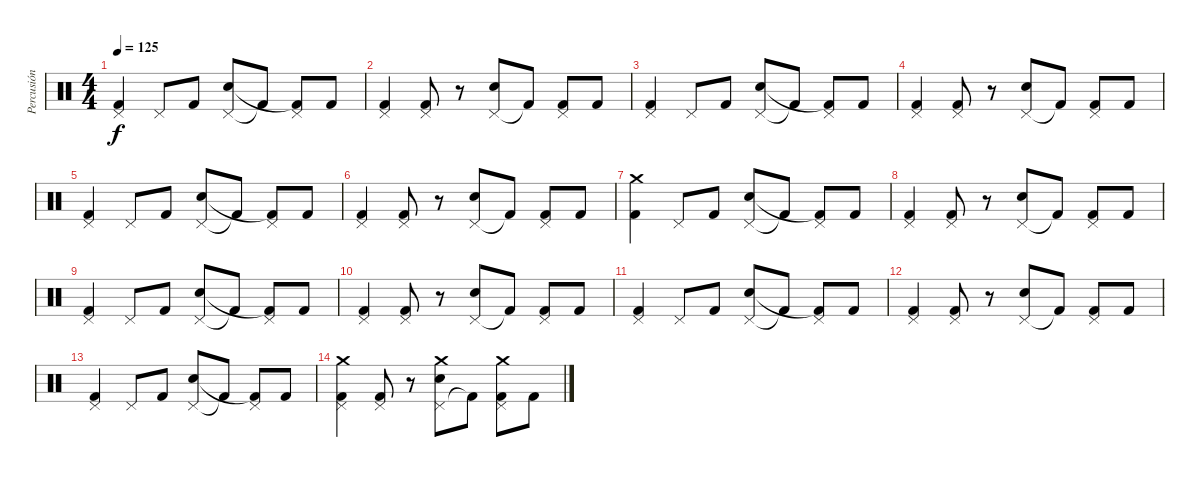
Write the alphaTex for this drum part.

\track ("Percusión" "Percusión") {instrument percussion}
\staff {score}
\articulation defaults
\ts (4 4)
\tempo 125
\clef neutral
\ks c
("Kick (hit) 2" "Pedal Hi-Hat (hit)").4{dy f} "Pedal Hi-Hat (hit)".8 "Kick (hit) 2".8 ("Pedal Hi-Hat (hit)" "Snare (hit) 2").8 "Kick (hit) 2"{t}.8 ("Pedal Hi-Hat (hit)" "Kick (hit) 2"{t}).8 "Kick (hit) 2".8 |
("Kick (hit) 2" "Pedal Hi-Hat (hit)").4 ("Pedal Hi-Hat (hit)" "Kick (hit) 2").8 r.8 ("Pedal Hi-Hat (hit)" "Snare (hit) 2").8 "Kick (hit) 2"{t}.8 ("Pedal Hi-Hat (hit)" "Kick (hit) 2").8 "Kick (hit) 2".8 |
("Kick (hit) 2" "Pedal Hi-Hat (hit)").4 "Pedal Hi-Hat (hit)".8 "Kick (hit) 2".8 ("Pedal Hi-Hat (hit)" "Snare (hit) 2").8 "Kick (hit) 2"{t}.8 ("Pedal Hi-Hat (hit)" "Kick (hit) 2"{t}).8 "Kick (hit) 2".8 |
("Kick (hit) 2" "Pedal Hi-Hat (hit)").4 ("Pedal Hi-Hat (hit)" "Kick (hit) 2").8 r.8 ("Pedal Hi-Hat (hit)" "Snare (hit) 2").8 "Kick (hit) 2"{t}.8 ("Pedal Hi-Hat (hit)" "Kick (hit) 2").8 "Kick (hit) 2".8 |
("Kick (hit) 2" "Pedal Hi-Hat (hit)").4 "Pedal Hi-Hat (hit)".8 "Kick (hit) 2".8 ("Pedal Hi-Hat (hit)" "Snare (hit) 2").8 "Kick (hit) 2"{t}.8 ("Pedal Hi-Hat (hit)" "Kick (hit) 2"{t}).8 "Kick (hit) 2".8 |
("Kick (hit) 2" "Pedal Hi-Hat (hit)").4 ("Pedal Hi-Hat (hit)" "Kick (hit) 2").8 r.8 ("Pedal Hi-Hat (hit)" "Snare (hit) 2").8 "Kick (hit) 2"{t}.8 ("Pedal Hi-Hat (hit)" "Kick (hit) 2").8 "Kick (hit) 2".8 |
("Kick (hit) 2" "Crash medium (hit)").4 "Pedal Hi-Hat (hit)".8 "Kick (hit) 2".8 ("Pedal Hi-Hat (hit)" "Snare (hit) 2").8 "Kick (hit) 2"{t}.8 ("Pedal Hi-Hat (hit)" "Kick (hit) 2"{t}).8 "Kick (hit) 2".8 |
("Kick (hit) 2" "Pedal Hi-Hat (hit)").4 ("Pedal Hi-Hat (hit)" "Kick (hit) 2").8 r.8 ("Pedal Hi-Hat (hit)" "Snare (hit) 2").8 "Kick (hit) 2"{t}.8 ("Pedal Hi-Hat (hit)" "Kick (hit) 2").8 "Kick (hit) 2".8 |
("Kick (hit) 2" "Pedal Hi-Hat (hit)").4 "Pedal Hi-Hat (hit)".8 "Kick (hit) 2".8 ("Pedal Hi-Hat (hit)" "Snare (hit) 2").8 "Kick (hit) 2"{t}.8 ("Pedal Hi-Hat (hit)" "Kick (hit) 2"{t}).8 "Kick (hit) 2".8 |
("Kick (hit) 2" "Pedal Hi-Hat (hit)").4 ("Pedal Hi-Hat (hit)" "Kick (hit) 2").8 r.8 ("Pedal Hi-Hat (hit)" "Snare (hit) 2").8 "Kick (hit) 2"{t}.8 ("Pedal Hi-Hat (hit)" "Kick (hit) 2").8 "Kick (hit) 2".8 |
("Kick (hit) 2" "Pedal Hi-Hat (hit)").4 "Pedal Hi-Hat (hit)".8 "Kick (hit) 2".8 ("Pedal Hi-Hat (hit)" "Snare (hit) 2").8 "Kick (hit) 2"{t}.8 ("Pedal Hi-Hat (hit)" "Kick (hit) 2"{t}).8 "Kick (hit) 2".8 |
("Kick (hit) 2" "Pedal Hi-Hat (hit)").4 ("Pedal Hi-Hat (hit)" "Kick (hit) 2").8 r.8 ("Pedal Hi-Hat (hit)" "Snare (hit) 2").8 "Kick (hit) 2"{t}.8 ("Pedal Hi-Hat (hit)" "Kick (hit) 2").8 "Kick (hit) 2".8 |
("Kick (hit) 2" "Pedal Hi-Hat (hit)").4 "Pedal Hi-Hat (hit)".8 "Kick (hit) 2".8 ("Pedal Hi-Hat (hit)" "Snare (hit) 2").8 "Kick (hit) 2"{t}.8 ("Pedal Hi-Hat (hit)" "Kick (hit) 2"{t}).8 "Kick (hit) 2".8 |
("Kick (hit) 2" "Pedal Hi-Hat (hit)" "Crash medium (hit)").4 ("Pedal Hi-Hat (hit)" "Kick (hit) 2").8 r.8 ("Pedal Hi-Hat (hit)" "Snare (hit) 2" "Crash medium (hit)").8 "Kick (hit) 2"{t}.8 ("Pedal Hi-Hat (hit)" "Kick (hit) 2" "Crash medium (hit)").8 "Kick (hit) 2".8
